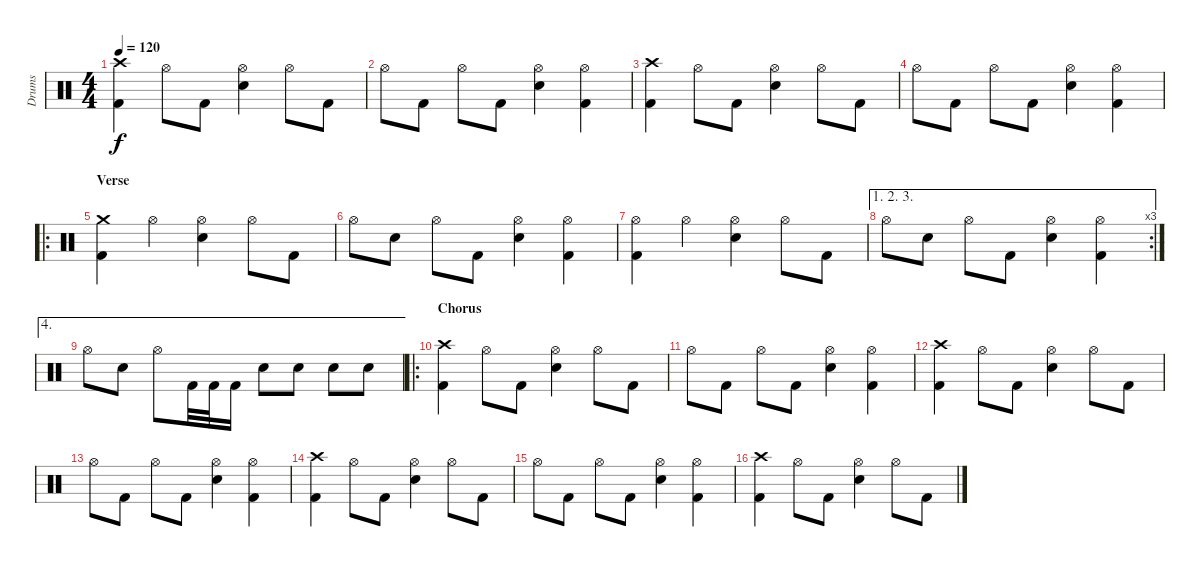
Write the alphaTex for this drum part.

\track ("Drums" "Drums") {instrument percussion}
\staff {score}
\articulation defaults
\ts (4 4)
\tempo 120
\clef neutral
\ks c
("Crash high (hit)" "Kick (hit) 2").4{dy f} "Hi-Hat (open)".8 "Kick (hit) 2".8 ("Hi-Hat (open)" "Electric Snare (hit)").4 "Hi-Hat (open)".8 "Kick (hit) 2".8 |
"Hi-Hat (open)".8 "Kick (hit) 2".8 "Hi-Hat (open)".8 "Kick (hit) 2".8 ("Hi-Hat (open)" "Electric Snare (hit)").4 ("Hi-Hat (open)" "Kick (hit) 2").4 |
("Crash high (hit)" "Kick (hit) 2").4 "Hi-Hat (open)".8 "Kick (hit) 2".8 ("Hi-Hat (open)" "Electric Snare (hit)").4 "Hi-Hat (open)".8 "Kick (hit) 2".8 |
"Hi-Hat (open)".8 "Kick (hit) 2".8 "Hi-Hat (open)".8 "Kick (hit) 2".8 ("Hi-Hat (open)" "Electric Snare (hit)").4 ("Hi-Hat (open)" "Kick (hit) 2").4 |
\ro
\section ("" "Verse")
("Crash medium (hit)" "Kick (hit) 2").4 "Hi-Hat (open)".4 ("Hi-Hat (open)" "Electric Snare (hit)").4 "Hi-Hat (open)".8 "Kick (hit) 2".8 |
"Hi-Hat (open)".8 "Electric Snare (hit)".8 "Hi-Hat (open)".8 "Kick (hit) 2".8 ("Hi-Hat (open)" "Electric Snare (hit)").4 ("Hi-Hat (open)" "Kick (hit) 2").4 |
("Hi-Hat (open)" "Kick (hit) 2").4 "Hi-Hat (open)".4 ("Hi-Hat (open)" "Electric Snare (hit)").4 "Hi-Hat (open)".8 "Kick (hit) 2".8 |
\ae (1 2 3)
\rc 3 "Hi-Hat (open)".8 "Electric Snare (hit)".8 "Hi-Hat (open)".8 "Kick (hit) 2".8
("Hi-Hat (open)" "Electric Snare (hit)").4 ("Hi-Hat (open)" "Kick (hit) 2").4 |
\ae 4 "Hi-Hat (open)".8 "Electric Snare (hit)".8 "Hi-Hat (open)".8 "Kick (hit) 2".32 "Kick (hit) 2".32 "Kick (hit) 2".16 "Electric Snare (hit)".8 "Electric Snare (hit)".8 "Electric Snare (hit)".8 "Electric Snare (hit)".8
|
\ro
\section ("" "Chorus")
("Crash high (hit)" "Kick (hit) 2").4 "Hi-Hat (open)".8 "Kick (hit) 2".8 ("Hi-Hat (open)" "Electric Snare (hit)").4 "Hi-Hat (open)".8 "Kick (hit) 2".8 |
"Hi-Hat (open)".8 "Kick (hit) 2".8 "Hi-Hat (open)".8 "Kick (hit) 2".8 ("Hi-Hat (open)" "Electric Snare (hit)").4 ("Hi-Hat (open)" "Kick (hit) 2").4 |
("Crash high (hit)" "Kick (hit) 2").4 "Hi-Hat (open)".8 "Kick (hit) 2".8 ("Hi-Hat (open)" "Electric Snare (hit)").4 "Hi-Hat (open)".8 "Kick (hit) 2".8 |
"Hi-Hat (open)".8 "Kick (hit) 2".8 "Hi-Hat (open)".8 "Kick (hit) 2".8 ("Hi-Hat (open)" "Electric Snare (hit)").4 ("Hi-Hat (open)" "Kick (hit) 2").4 |
("Crash high (hit)" "Kick (hit) 2").4 "Hi-Hat (open)".8 "Kick (hit) 2".8 ("Hi-Hat (open)" "Electric Snare (hit)").4 "Hi-Hat (open)".8 "Kick (hit) 2".8 |
"Hi-Hat (open)".8 "Kick (hit) 2".8 "Hi-Hat (open)".8 "Kick (hit) 2".8 ("Hi-Hat (open)" "Electric Snare (hit)").4 ("Hi-Hat (open)" "Kick (hit) 2").4 |
("Crash high (hit)" "Kick (hit) 2").4 "Hi-Hat (open)".8 "Kick (hit) 2".8 ("Hi-Hat (open)" "Electric Snare (hit)").4 "Hi-Hat (open)".8 "Kick (hit) 2".8
